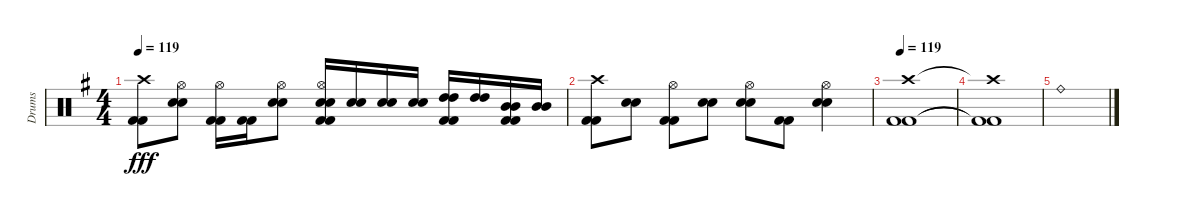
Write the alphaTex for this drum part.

\track ("Drums" "Drums") {instrument percussion}
\staff {score}
\articulation defaults
\ts (4 4)
\tempo 119
\clef neutral
\ks g
("Crash high (hit)" "Kick (hit) 2" "Kick (hit) 2").8{dy fff} ("Hi-Hat (open)" "Snare (hit) 2" "Snare (hit) 2").8 ("Hi-Hat (open)" "Kick (hit) 2" "Kick (hit) 2").16 ("Kick (hit) 2" "Kick (hit) 2").16 ("Hi-Hat (open)" "Snare (hit) 2" "Snare (hit) 2").8 ("Hi-Hat (open)" "Snare (hit) 2" "Snare (hit) 2" "Kick (hit) 2" "Kick (hit) 2").16 ("Snare (hit) 2" "Snare (hit) 2").16 ("Snare (hit) 2" "Snare (hit) 2").16 ("Snare (hit) 2" "Snare (hit) 2").16 ("High Tom (hit)" "High Tom (hit)" "Kick (hit) 2" "Kick (hit) 2").16 ("High Tom (hit)" "High Tom (hit)").16 ("Mid Tom (hit)" "Mid Tom (hit)" "Kick (hit) 2" "Kick (hit) 2").16 ("Mid Tom (hit)" "Mid Tom (hit)").16 |
("Crash high (hit)" "Kick (hit) 2" "Kick (hit) 2").8 ("Snare (hit) 2" "Snare (hit) 2").8 ("Hi-Hat (open)" "Kick (hit) 2" "Kick (hit) 2").8 ("Snare (hit) 2" "Snare (hit) 2").8 ("Hi-Hat (open)" "Snare (hit) 2" "Snare (hit) 2").8 ("Kick (hit) 2" "Kick (hit) 2").8 ("Hi-Hat (open)" "Snare (hit) 2" "Snare (hit) 2").4 |
\tempo 119
("Crash high (hit)" "Kick (hit) 2" "Kick (hit) 2").1 |
("Crash high (hit)"{t} "Kick (hit) 2"{t} "Kick (hit) 2"{t}).1 |
"Ride (bell)".1
